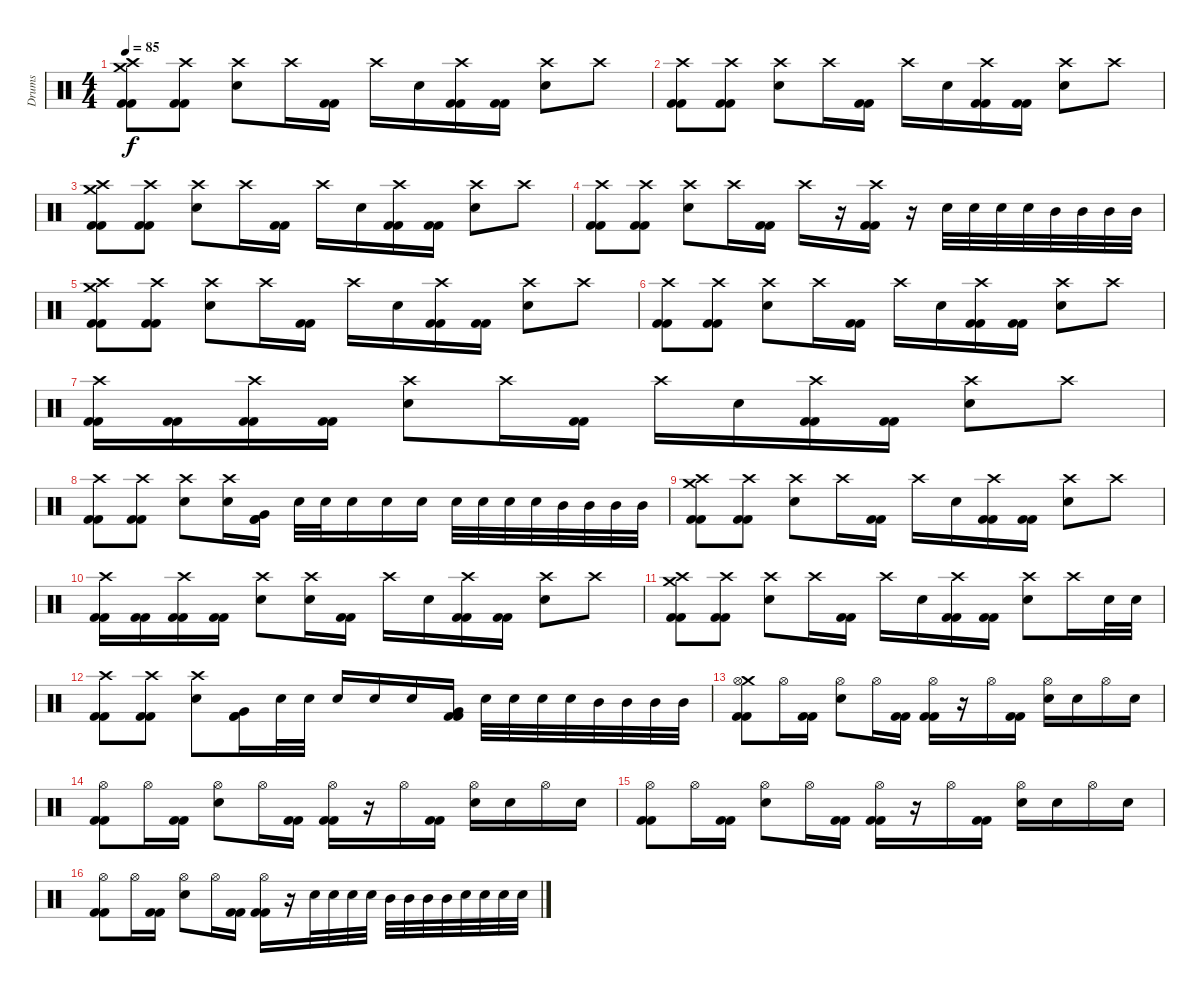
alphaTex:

\track ("Drums" "Drums") {instrument percussion}
\staff {score}
\articulation defaults
\ts (4 4)
\tempo 85
\clef neutral
\ks c
("Crash medium (hit)" "Crash high (hit)" "Kick (hit) 2" "Kick (hit) 2").8{dy f} ("Crash high (hit)" "Kick (hit) 2" "Kick (hit) 2").8 ("Crash high (hit)" "Electric Snare (hit)").8 "Crash high (hit)".16 ("Kick (hit) 2" "Kick (hit) 2").16 "Crash high (hit)".16 "Electric Snare (hit)".16 ("Crash high (hit)" "Kick (hit) 2" "Kick (hit) 2").16 ("Kick (hit) 2" "Kick (hit) 2").16 ("Crash high (hit)" "Electric Snare (hit)").8 "Crash high (hit)".8 |
("Crash high (hit)" "Kick (hit) 2" "Kick (hit) 2").8 ("Crash high (hit)" "Kick (hit) 2" "Kick (hit) 2").8 ("Crash high (hit)" "Electric Snare (hit)").8 "Crash high (hit)".16 ("Kick (hit) 2" "Kick (hit) 2").16 "Crash high (hit)".16 "Electric Snare (hit)".16 ("Crash high (hit)" "Kick (hit) 2" "Kick (hit) 2").16 ("Kick (hit) 2" "Kick (hit) 2").16 ("Crash high (hit)" "Electric Snare (hit)").8 "Crash high (hit)".8 |
("Crash medium (hit)" "Crash high (hit)" "Kick (hit) 2" "Kick (hit) 2").8 ("Crash high (hit)" "Kick (hit) 2" "Kick (hit) 2").8 ("Crash high (hit)" "Electric Snare (hit)").8 "Crash high (hit)".16 ("Kick (hit) 2" "Kick (hit) 2").16 "Crash high (hit)".16 "Electric Snare (hit)".16 ("Crash high (hit)" "Kick (hit) 2" "Kick (hit) 2").16 ("Kick (hit) 2" "Kick (hit) 2").16 ("Crash high (hit)" "Electric Snare (hit)").8 "Crash high (hit)".8 |
("Crash high (hit)" "Kick (hit) 2" "Kick (hit) 2").8 ("Crash high (hit)" "Kick (hit) 2" "Kick (hit) 2").8 ("Crash high (hit)" "Electric Snare (hit)").8 "Crash high (hit)".16 ("Kick (hit) 2" "Kick (hit) 2").16 "Crash high (hit)".16 r.16 ("Crash high (hit)" "Kick (hit) 2" "Kick (hit) 2").16 r.16 "Electric Snare (hit)".32 "Electric Snare (hit)".32 "Electric Snare (hit)".32 "Electric Snare (hit)".32 "Mid Tom (hit)".32 "Mid Tom (hit)".32 "Mid Tom (hit)".32 "Mid Tom (hit)".32 |
("Crash medium (hit)" "Crash high (hit)" "Kick (hit) 2" "Kick (hit) 2").8 ("Crash high (hit)" "Kick (hit) 2" "Kick (hit) 2").8 ("Crash high (hit)" "Electric Snare (hit)").8 "Crash high (hit)".16 ("Kick (hit) 2" "Kick (hit) 2").16 "Crash high (hit)".16 "Electric Snare (hit)".16 ("Crash high (hit)" "Kick (hit) 2" "Kick (hit) 2").16 ("Kick (hit) 2" "Kick (hit) 2").16 ("Crash high (hit)" "Electric Snare (hit)").8 "Crash high (hit)".8 |
("Crash high (hit)" "Kick (hit) 2" "Kick (hit) 2").8 ("Crash high (hit)" "Kick (hit) 2" "Kick (hit) 2").8 ("Crash high (hit)" "Electric Snare (hit)").8 "Crash high (hit)".16 ("Kick (hit) 2" "Kick (hit) 2").16 "Crash high (hit)".16 "Electric Snare (hit)".16 ("Crash high (hit)" "Kick (hit) 2" "Kick (hit) 2").16 ("Kick (hit) 2" "Kick (hit) 2").16 ("Crash high (hit)" "Electric Snare (hit)").8 "Crash high (hit)".8 |
("Crash high (hit)" "Kick (hit) 2" "Kick (hit) 2").16 ("Kick (hit) 2" "Kick (hit) 2").16 ("Crash high (hit)" "Kick (hit) 2" "Kick (hit) 2").16 ("Kick (hit) 2" "Kick (hit) 2").16 ("Crash high (hit)" "Electric Snare (hit)").8 "Crash high (hit)".16 ("Kick (hit) 2" "Kick (hit) 2").16 "Crash high (hit)".16 "Electric Snare (hit)".16 ("Crash high (hit)" "Kick (hit) 2" "Kick (hit) 2").16 ("Kick (hit) 2" "Kick (hit) 2").16 ("Crash high (hit)" "Electric Snare (hit)").8 "Crash high (hit)".8 |
("Crash high (hit)" "Kick (hit) 2" "Kick (hit) 2").8 ("Crash high (hit)" "Kick (hit) 2" "Kick (hit) 2").8 ("Crash high (hit)" "Electric Snare (hit)").8 ("Crash high (hit)" "Electric Snare (hit)").16 ("Very Low Tom (hit)" "Kick (hit) 2" "Kick (hit) 2").16 "Electric Snare (hit)".32 "Electric Snare (hit)".32 "Electric Snare (hit)".16 "Electric Snare (hit)".16 "Electric Snare (hit)".16 "Electric Snare (hit)".32 "Electric Snare (hit)".32 "Electric Snare (hit)".32 "Electric Snare (hit)".32 "Mid Tom (hit)".32 "Mid Tom (hit)".32 "Mid Tom (hit)".32 "Mid Tom (hit)".32 |
("Crash medium (hit)" "Crash high (hit)" "Kick (hit) 2" "Kick (hit) 2").8 ("Crash high (hit)" "Kick (hit) 2" "Kick (hit) 2").8 ("Crash high (hit)" "Electric Snare (hit)").8 "Crash high (hit)".16 ("Kick (hit) 2" "Kick (hit) 2").16 "Crash high (hit)".16 "Electric Snare (hit)".16 ("Crash high (hit)" "Kick (hit) 2" "Kick (hit) 2").16 ("Kick (hit) 2" "Kick (hit) 2").16 ("Crash high (hit)" "Electric Snare (hit)").8 "Crash high (hit)".8 |
("Crash high (hit)" "Kick (hit) 2" "Kick (hit) 2").16 ("Kick (hit) 2" "Kick (hit) 2").16 ("Crash high (hit)" "Kick (hit) 2" "Kick (hit) 2").16 ("Kick (hit) 2" "Kick (hit) 2").16 ("Crash high (hit)" "Electric Snare (hit)").8 ("Crash high (hit)" "Electric Snare (hit)").16 ("Kick (hit) 2" "Kick (hit) 2").16 "Crash high (hit)".16 "Electric Snare (hit)".16 ("Crash high (hit)" "Kick (hit) 2" "Kick (hit) 2").16 ("Kick (hit) 2" "Kick (hit) 2").16 ("Crash high (hit)" "Electric Snare (hit)").8 "Crash high (hit)".8 |
("Crash medium (hit)" "Crash high (hit)" "Kick (hit) 2" "Kick (hit) 2").8 ("Crash high (hit)" "Kick (hit) 2" "Kick (hit) 2").8 ("Crash high (hit)" "Electric Snare (hit)").8 "Crash high (hit)".16 ("Kick (hit) 2" "Kick (hit) 2").16 "Crash high (hit)".16 "Electric Snare (hit)".16 ("Crash high (hit)" "Kick (hit) 2" "Kick (hit) 2").16 ("Kick (hit) 2" "Kick (hit) 2").16 ("Crash high (hit)" "Electric Snare (hit)").8 "Crash high (hit)".16 "Electric Snare (hit)".32 "Electric Snare (hit)".32 |
("Crash high (hit)" "Kick (hit) 2" "Kick (hit) 2").8 ("Crash high (hit)" "Kick (hit) 2" "Kick (hit) 2").8 ("Crash high (hit)" "Electric Snare (hit)").8 ("Very Low Tom (hit)" "Kick (hit) 2" "Kick (hit) 2").16 "Electric Snare (hit)".32 "Electric Snare (hit)".32 "Electric Snare (hit)".16 "Electric Snare (hit)".16 "Electric Snare (hit)".16 ("Very Low Tom (hit)" "Kick (hit) 2" "Kick (hit) 2").16 "Electric Snare (hit)".32 "Electric Snare (hit)".32 "Electric Snare (hit)".32 "Electric Snare (hit)".32 "Mid Tom (hit)".32 "Mid Tom (hit)".32 "Mid Tom (hit)".32 "Mid Tom (hit)".32 |
("Crash medium (hit)" "Hi-Hat (open)" "Kick (hit) 2" "Kick (hit) 2").8 "Hi-Hat (open)".16 ("Kick (hit) 2" "Kick (hit) 2").16 ("Hi-Hat (open)" "Electric Snare (hit)").8 "Hi-Hat (open)".16 ("Kick (hit) 2" "Kick (hit) 2").16 ("Hi-Hat (open)" "Kick (hit) 2" "Kick (hit) 2").16 r.16 "Hi-Hat (open)".16 ("Kick (hit) 2" "Kick (hit) 2").16 ("Hi-Hat (open)" "Electric Snare (hit)").16 "Electric Snare (hit)".16 "Hi-Hat (open)".16 "Electric Snare (hit)".16 |
("Hi-Hat (open)" "Kick (hit) 2" "Kick (hit) 2").8 "Hi-Hat (open)".16 ("Kick (hit) 2" "Kick (hit) 2").16 ("Hi-Hat (open)" "Electric Snare (hit)").8 "Hi-Hat (open)".16 ("Kick (hit) 2" "Kick (hit) 2").16 ("Hi-Hat (open)" "Kick (hit) 2" "Kick (hit) 2").16 r.16 "Hi-Hat (open)".16 ("Kick (hit) 2" "Kick (hit) 2").16 ("Hi-Hat (open)" "Electric Snare (hit)").16 "Electric Snare (hit)".16 "Hi-Hat (open)".16 "Electric Snare (hit)".16 |
("Hi-Hat (open)" "Kick (hit) 2" "Kick (hit) 2").8 "Hi-Hat (open)".16 ("Kick (hit) 2" "Kick (hit) 2").16 ("Hi-Hat (open)" "Electric Snare (hit)").8 "Hi-Hat (open)".16 ("Kick (hit) 2" "Kick (hit) 2").16 ("Hi-Hat (open)" "Kick (hit) 2" "Kick (hit) 2").16 r.16 "Hi-Hat (open)".16 ("Kick (hit) 2" "Kick (hit) 2").16 ("Hi-Hat (open)" "Electric Snare (hit)").16 "Electric Snare (hit)".16 "Hi-Hat (open)".16 "Electric Snare (hit)".16 |
("Hi-Hat (open)" "Kick (hit) 2" "Kick (hit) 2").8 "Hi-Hat (open)".16 ("Kick (hit) 2" "Kick (hit) 2").16 ("Hi-Hat (open)" "Electric Snare (hit)").8 "Hi-Hat (open)".16 ("Kick (hit) 2" "Kick (hit) 2").16 ("Hi-Hat (open)" "Kick (hit) 2" "Kick (hit) 2").16 r.16 "Electric Snare (hit)".32 "Electric Snare (hit)".32 "Electric Snare (hit)".32 "Electric Snare (hit)".32 "Mid Tom (hit)".32 "Mid Tom (hit)".32 "Mid Tom (hit)".32 "Mid Tom (hit)".32 "Electric Snare (hit)".32 "Electric Snare (hit)".32 "Electric Snare (hit)".32 "Electric Snare (hit)".32
